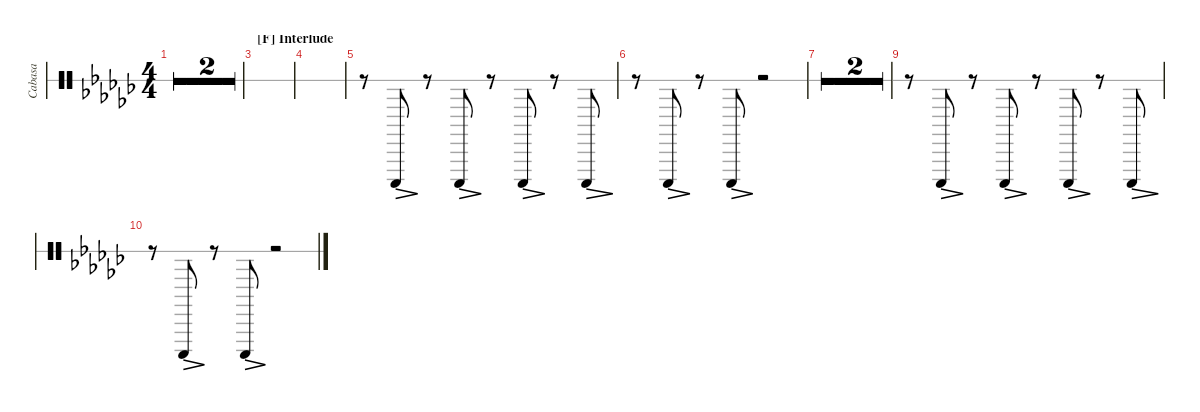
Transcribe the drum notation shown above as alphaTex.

\defaultSystemsLayout 4
\hideDynamics
\bracketExtendMode groupsimilarinstruments
\otherSystemsTrackNameOrientation horizontal
\track ("Cabasa" "Cabasa") {multiBarRest instrument percussion}
\staff {score 1}
\articulation defaults
\ts (4 4)
\tempo 139
\clef neutral
\ks gb
|
|
\section ("F" "Interlude")
|
|
r.8 "Cabasa (hit)"{acc forcenatural}.8{dec} r.8 "Cabasa (hit)"{acc forcenatural}.8{dec} r.8 "Cabasa (hit)"{acc forcenatural}.8{dec} r.8 "Cabasa (hit)"{acc forcenatural}.8{dec} |
r.8 "Cabasa (hit)"{acc forcenatural}.8{dec} r.8 "Cabasa (hit)"{acc forcenatural}.8{dec} r.2 |
|
|
r.8 "Cabasa (hit)"{acc forcenatural}.8{dec} r.8 "Cabasa (hit)"{acc forcenatural}.8{dec} r.8 "Cabasa (hit)"{acc forcenatural}.8{dec} r.8 "Cabasa (hit)"{acc forcenatural}.8{dec} |
r.8 "Cabasa (hit)"{acc forcenatural}.8{dec} r.8 "Cabasa (hit)"{acc forcenatural}.8{dec} r.2
